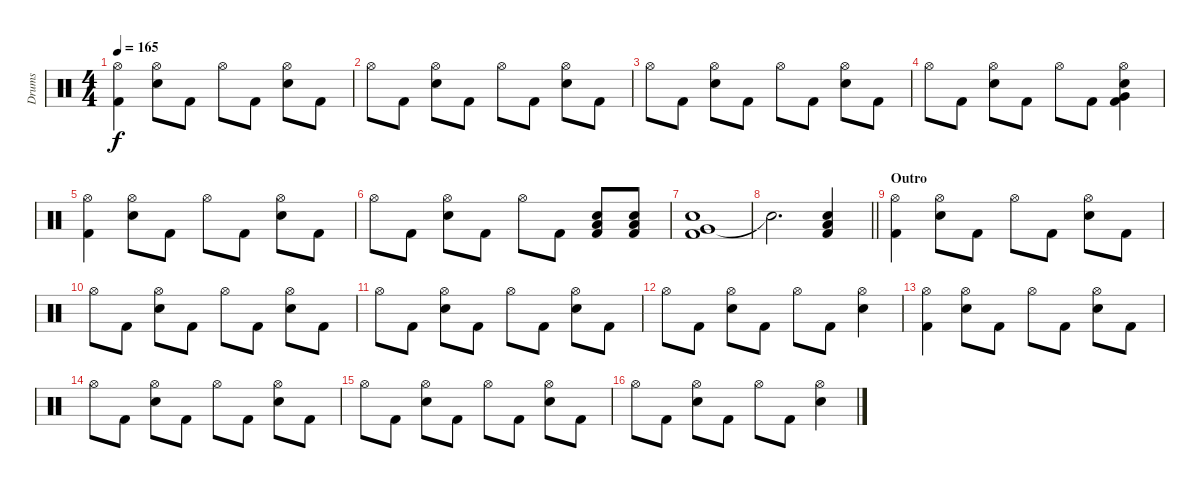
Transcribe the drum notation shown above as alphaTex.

\track ("Drums" "Drums") {instrument percussion}
\staff {score}
\articulation defaults
\ts (4 4)
\tempo 165
\clef neutral
\ks c
("Hi-Hat (open)" "Kick (hit) 2").4{dy f} ("Hi-Hat (open)" "Electric Snare (hit)").8 "Kick (hit) 2".8 "Hi-Hat (open)".8 "Kick (hit) 2".8 ("Hi-Hat (open)" "Electric Snare (hit)").8 "Kick (hit) 2".8 |
"Hi-Hat (open)".8 "Kick (hit) 2".8 ("Hi-Hat (open)" "Electric Snare (hit)").8 "Kick (hit) 2".8 "Hi-Hat (open)".8 "Kick (hit) 2".8 ("Hi-Hat (open)" "Electric Snare (hit)").8 "Kick (hit) 2".8 |
"Hi-Hat (open)".8 "Kick (hit) 2".8 ("Hi-Hat (open)" "Electric Snare (hit)").8 "Kick (hit) 2".8 "Hi-Hat (open)".8 "Kick (hit) 2".8 ("Hi-Hat (open)" "Electric Snare (hit)").8 "Kick (hit) 2".8 |
"Hi-Hat (open)".8 "Kick (hit) 2".8 ("Hi-Hat (open)" "Electric Snare (hit)").8 "Kick (hit) 2".8 "Hi-Hat (open)".8 "Kick (hit) 2".8 ("Hi-Hat (open)" "Very Low Tom (hit)" "Electric Snare (hit)" "Kick (hit) 2").4 |
("Hi-Hat (open)" "Kick (hit) 2").4 ("Hi-Hat (open)" "Electric Snare (hit)").8 "Kick (hit) 2".8 "Hi-Hat (open)".8 "Kick (hit) 2".8 ("Hi-Hat (open)" "Electric Snare (hit)").8 "Kick (hit) 2".8 |
"Hi-Hat (open)".8 "Kick (hit) 2".8 ("Hi-Hat (open)" "Electric Snare (hit)").8 "Kick (hit) 2".8 "Hi-Hat (open)".8 "Kick (hit) 2".8 ("Low Tom (hit)" "Electric Snare (hit)" "Kick (hit) 2").8 ("Low Tom (hit)" "Electric Snare (hit)" "Kick (hit) 2").8 |
("Very Low Tom (hit)" "Electric Snare (hit)" "Kick (hit) 2").1 |
\barLineRight lightlight "Snare (hit)"{t}.2{d}
("Low Floor Tom (hit)" "Electric Snare (hit)" "Kick (hit) 2").4 |
\section ("" "Outro")
("Hi-Hat (open)" "Kick (hit) 2").4 ("Hi-Hat (open)" "Electric Snare (hit)").8 "Kick (hit) 2".8 "Hi-Hat (open)".8 "Kick (hit) 2".8 ("Hi-Hat (open)" "Electric Snare (hit)").8 "Kick (hit) 2".8 |
"Hi-Hat (open)".8 "Kick (hit) 2".8 ("Hi-Hat (open)" "Electric Snare (hit)").8 "Kick (hit) 2".8 "Hi-Hat (open)".8 "Kick (hit) 2".8 ("Hi-Hat (open)" "Electric Snare (hit)").8 "Kick (hit) 2".8 |
"Hi-Hat (open)".8 "Kick (hit) 2".8 ("Hi-Hat (open)" "Electric Snare (hit)").8 "Kick (hit) 2".8 "Hi-Hat (open)".8 "Kick (hit) 2".8 ("Hi-Hat (open)" "Electric Snare (hit)").8 "Kick (hit) 2".8 |
"Hi-Hat (open)".8 "Kick (hit) 2".8 ("Hi-Hat (open)" "Electric Snare (hit)").8 "Kick (hit) 2".8 "Hi-Hat (open)".8 "Kick (hit) 2".8 ("Hi-Hat (open)" "Electric Snare (hit)").4 |
("Hi-Hat (open)" "Kick (hit) 2").4 ("Hi-Hat (open)" "Electric Snare (hit)").8 "Kick (hit) 2".8 "Hi-Hat (open)".8 "Kick (hit) 2".8 ("Hi-Hat (open)" "Electric Snare (hit)").8 "Kick (hit) 2".8 |
"Hi-Hat (open)".8 "Kick (hit) 2".8 ("Hi-Hat (open)" "Electric Snare (hit)").8 "Kick (hit) 2".8 "Hi-Hat (open)".8 "Kick (hit) 2".8 ("Hi-Hat (open)" "Electric Snare (hit)").8 "Kick (hit) 2".8 |
"Hi-Hat (open)".8 "Kick (hit) 2".8 ("Hi-Hat (open)" "Electric Snare (hit)").8 "Kick (hit) 2".8 "Hi-Hat (open)".8 "Kick (hit) 2".8 ("Hi-Hat (open)" "Electric Snare (hit)").8 "Kick (hit) 2".8 |
"Hi-Hat (open)".8 "Kick (hit) 2".8 ("Hi-Hat (open)" "Electric Snare (hit)").8 "Kick (hit) 2".8 "Hi-Hat (open)".8 "Kick (hit) 2".8 ("Hi-Hat (open)" "Electric Snare (hit)").4
